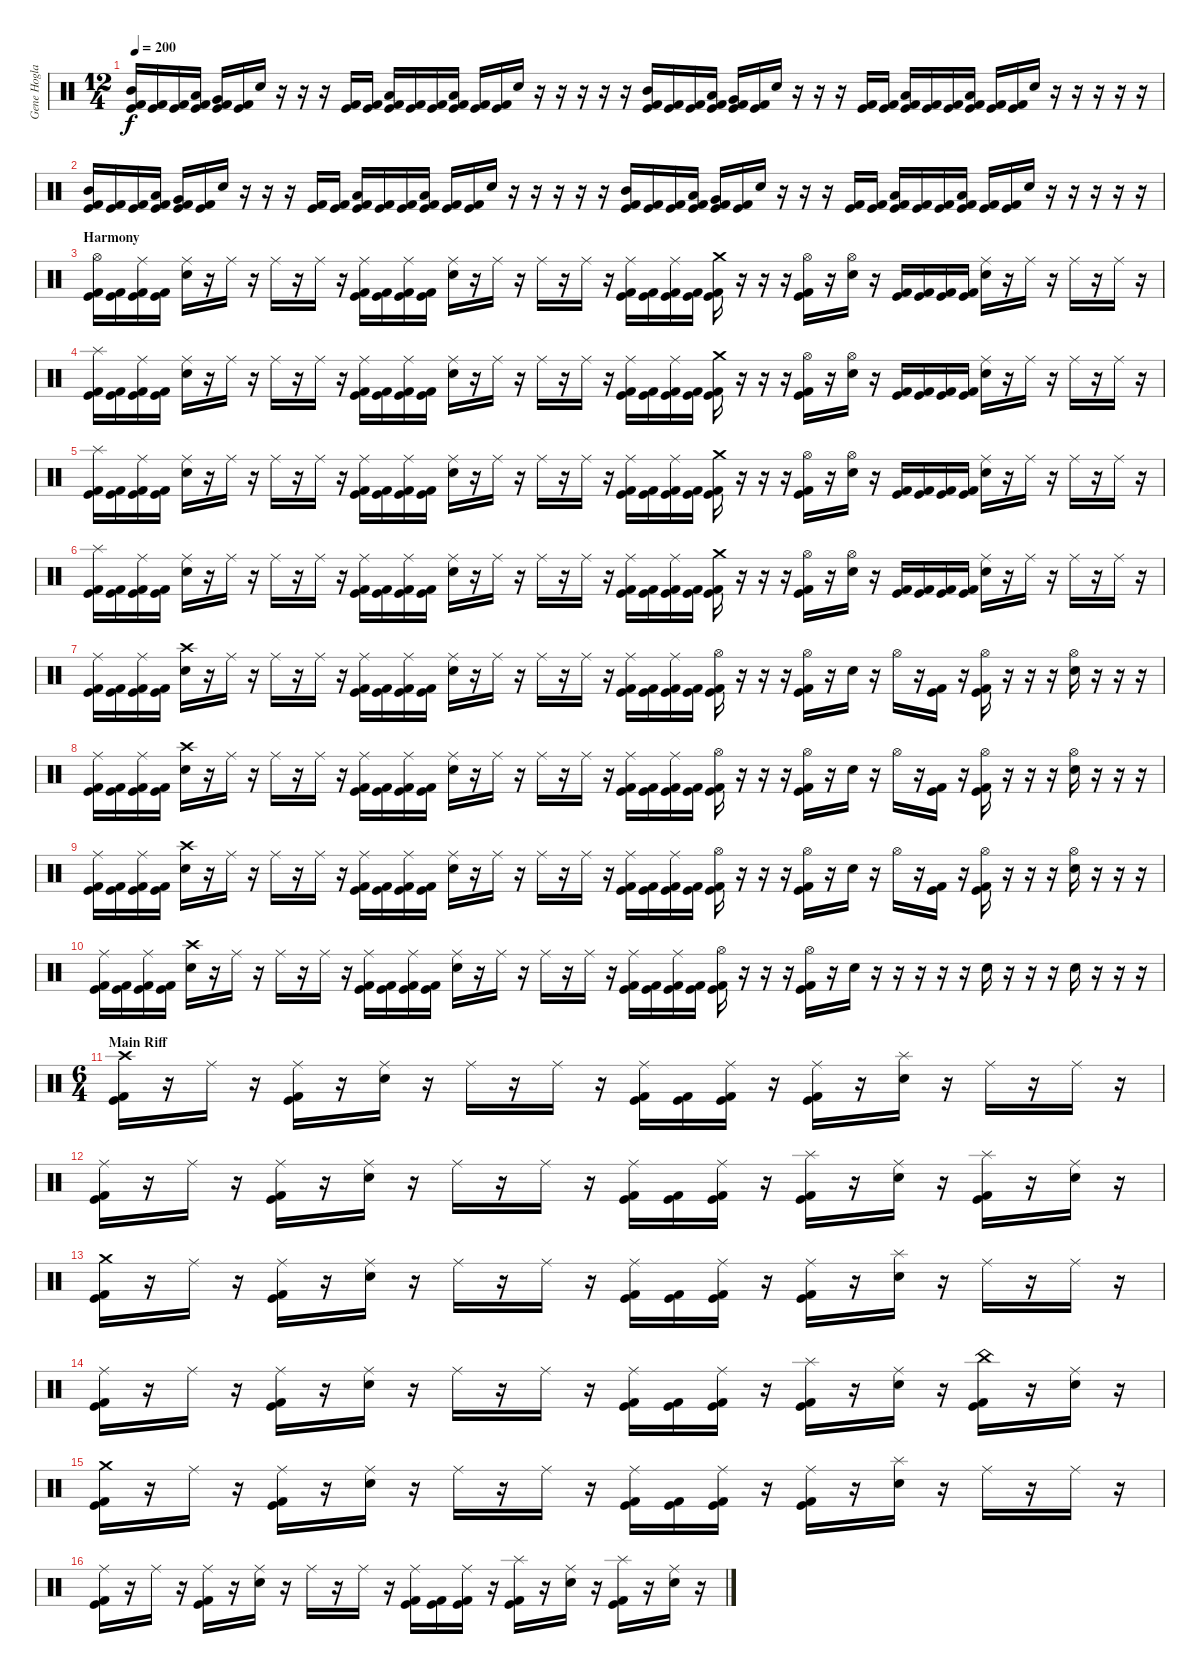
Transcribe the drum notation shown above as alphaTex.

\track ("Gene Hoglan" "Gene Hogla") {instrument percussion}
\staff {score}
\articulation defaults
\ts (12 4)
\tempo 200
\clef neutral
\ks c
("Mid Tom (hit)" "Kick (hit) 2" "Kick (hit)").16{dy f} ("Kick (hit) 2" "Kick (hit)").16 ("Kick (hit) 2" "Kick (hit)").16 ("Low Tom (hit)" "Kick (hit) 2" "Kick (hit)").16 ("Very Low Tom (hit)" "Kick (hit) 2" "Kick (hit)").16 ("Kick (hit) 2" "Kick (hit)").16 "Electric Snare (hit)".16 r.16 r.16 r.16 ("Kick (hit) 2" "Kick (hit)").16 ("Kick (hit) 2" "Kick (hit)").16 ("Low Tom (hit)" "Kick (hit) 2" "Kick (hit)").16 ("Kick (hit) 2" "Kick (hit)").16 ("Kick (hit) 2" "Kick (hit)").16 ("Low Tom (hit)" "Kick (hit) 2" "Kick (hit)").16 ("Kick (hit) 2" "Kick (hit)").16 ("Kick (hit) 2" "Kick (hit)").16 "Electric Snare (hit)".16 r.16 r.16 r.16 r.16 r.16 ("Mid Tom (hit)" "Kick (hit) 2" "Kick (hit)").16 ("Kick (hit) 2" "Kick (hit)").16 ("Kick (hit) 2" "Kick (hit)").16 ("Low Tom (hit)" "Kick (hit) 2" "Kick (hit)").16 ("Very Low Tom (hit)" "Kick (hit) 2" "Kick (hit)").16 ("Kick (hit) 2" "Kick (hit)").16 "Electric Snare (hit)".16 r.16 r.16 r.16 ("Kick (hit) 2" "Kick (hit)").16 ("Kick (hit) 2" "Kick (hit)").16 ("Low Tom (hit)" "Kick (hit) 2" "Kick (hit)").16 ("Kick (hit) 2" "Kick (hit)").16 ("Kick (hit) 2" "Kick (hit)").16 ("Low Tom (hit)" "Kick (hit) 2" "Kick (hit)").16 ("Kick (hit) 2" "Kick (hit)").16 ("Kick (hit) 2" "Kick (hit)").16 "Electric Snare (hit)".16 r.16 r.16 r.16 r.16 r.16 |
("Mid Tom (hit)" "Kick (hit) 2" "Kick (hit)").16 ("Kick (hit) 2" "Kick (hit)").16 ("Kick (hit) 2" "Kick (hit)").16 ("Low Tom (hit)" "Kick (hit) 2" "Kick (hit)").16 ("Very Low Tom (hit)" "Kick (hit) 2" "Kick (hit)").16 ("Kick (hit) 2" "Kick (hit)").16 "Electric Snare (hit)".16 r.16 r.16 r.16 ("Kick (hit) 2" "Kick (hit)").16 ("Kick (hit) 2" "Kick (hit)").16 ("Low Tom (hit)" "Kick (hit) 2" "Kick (hit)").16 ("Kick (hit) 2" "Kick (hit)").16 ("Kick (hit) 2" "Kick (hit)").16 ("Low Tom (hit)" "Kick (hit) 2" "Kick (hit)").16 ("Kick (hit) 2" "Kick (hit)").16 ("Kick (hit) 2" "Kick (hit)").16 "Electric Snare (hit)".16 r.16 r.16 r.16 r.16 r.16 ("Mid Tom (hit)" "Kick (hit) 2" "Kick (hit)").16 ("Kick (hit) 2" "Kick (hit)").16 ("Kick (hit) 2" "Kick (hit)").16 ("Low Tom (hit)" "Kick (hit) 2" "Kick (hit)").16 ("Very Low Tom (hit)" "Kick (hit) 2" "Kick (hit)").16 ("Kick (hit) 2" "Kick (hit)").16 "Electric Snare (hit)".16 r.16 r.16 r.16 ("Kick (hit) 2" "Kick (hit)").16 ("Kick (hit) 2" "Kick (hit)").16 ("Low Tom (hit)" "Kick (hit) 2" "Kick (hit)").16 ("Kick (hit) 2" "Kick (hit)").16 ("Kick (hit) 2" "Kick (hit)").16 ("Low Tom (hit)" "Kick (hit) 2" "Kick (hit)").16 ("Kick (hit) 2" "Kick (hit)").16 ("Kick (hit) 2" "Kick (hit)").16 "Electric Snare (hit)".16 r.16 r.16 r.16 r.16 r.16 |
\section ("" "Harmony")
("Hi-Hat (open)" "Kick (hit) 2" "Kick (hit)").16 ("Kick (hit) 2" "Kick (hit)").16 ("Ride (middle)" "Kick (hit) 2" "Kick (hit)").16 ("Kick (hit) 2" "Kick (hit)").16 ("Ride (middle)" "Electric Snare (hit)").16 r.16 "Ride (middle)".16 r.16 "Ride (middle)".16 r.16 "Ride (middle)".16 r.16 ("Ride (middle)" "Kick (hit) 2" "Kick (hit)").16 ("Kick (hit) 2" "Kick (hit)").16 ("Ride (middle)" "Kick (hit) 2" "Kick (hit)").16 ("Kick (hit) 2" "Kick (hit)").16 ("Ride (middle)" "Electric Snare (hit)").16 r.16 "Ride (middle)".16 r.16 "Ride (middle)".16 r.16 "Ride (middle)".16 r.16 ("Ride (middle)" "Kick (hit) 2" "Kick (hit)").16 ("Kick (hit) 2" "Kick (hit)").16 ("Ride (middle)" "Kick (hit) 2" "Kick (hit)").16 ("Kick (hit) 2" "Kick (hit)").16 ("Crash medium (hit)" "Kick (hit) 2" "Kick (hit)").16 r.16 r.16 r.16 ("Hi-Hat (open)" "Kick (hit) 2" "Kick (hit)").16 r.16 ("Hi-Hat (open)" "Electric Snare (hit)").16 r.16 ("Kick (hit) 2" "Kick (hit)").16 ("Kick (hit) 2" "Kick (hit)").16 ("Kick (hit) 2" "Kick (hit)").16 ("Kick (hit) 2" "Kick (hit)").16 ("Ride (middle)" "Electric Snare (hit)").16 r.16 "Ride (middle)".16 r.16 "Ride (middle)".16 r.16 "Ride (middle)".16 r.16 |
("Splash (hit)" "Kick (hit) 2" "Kick (hit)").16 ("Kick (hit) 2" "Kick (hit)").16 ("Ride (middle)" "Kick (hit) 2" "Kick (hit)").16 ("Kick (hit) 2" "Kick (hit)").16 ("Ride (middle)" "Electric Snare (hit)").16 r.16 "Ride (middle)".16 r.16 "Ride (middle)".16 r.16 "Ride (middle)".16 r.16 ("Ride (middle)" "Kick (hit) 2" "Kick (hit)").16 ("Kick (hit) 2" "Kick (hit)").16 ("Ride (middle)" "Kick (hit) 2" "Kick (hit)").16 ("Kick (hit) 2" "Kick (hit)").16 ("Ride (middle)" "Electric Snare (hit)").16 r.16 "Ride (middle)".16 r.16 "Ride (middle)".16 r.16 "Ride (middle)".16 r.16 ("Ride (middle)" "Kick (hit) 2" "Kick (hit)").16 ("Kick (hit) 2" "Kick (hit)").16 ("Ride (middle)" "Kick (hit) 2" "Kick (hit)").16 ("Kick (hit) 2" "Kick (hit)").16 ("Crash medium (hit)" "Kick (hit) 2" "Kick (hit)").16 r.16 r.16 r.16 ("Hi-Hat (open)" "Kick (hit) 2" "Kick (hit)").16 r.16 ("Hi-Hat (open)" "Electric Snare (hit)").16 r.16 ("Kick (hit) 2" "Kick (hit)").16 ("Kick (hit) 2" "Kick (hit)").16 ("Kick (hit) 2" "Kick (hit)").16 ("Kick (hit) 2" "Kick (hit)").16 ("Ride (middle)" "Electric Snare (hit)").16 r.16 "Ride (middle)".16 r.16 "Ride (middle)".16 r.16 "Ride (middle)".16 r.16 |
("Splash (hit)" "Kick (hit) 2" "Kick (hit)").16 ("Kick (hit) 2" "Kick (hit)").16 ("Ride (middle)" "Kick (hit) 2" "Kick (hit)").16 ("Kick (hit) 2" "Kick (hit)").16 ("Ride (middle)" "Electric Snare (hit)").16 r.16 "Ride (middle)".16 r.16 "Ride (middle)".16 r.16 "Ride (middle)".16 r.16 ("Ride (middle)" "Kick (hit) 2" "Kick (hit)").16 ("Kick (hit) 2" "Kick (hit)").16 ("Ride (middle)" "Kick (hit) 2" "Kick (hit)").16 ("Kick (hit) 2" "Kick (hit)").16 ("Ride (middle)" "Electric Snare (hit)").16 r.16 "Ride (middle)".16 r.16 "Ride (middle)".16 r.16 "Ride (middle)".16 r.16 ("Ride (middle)" "Kick (hit) 2" "Kick (hit)").16 ("Kick (hit) 2" "Kick (hit)").16 ("Ride (middle)" "Kick (hit) 2" "Kick (hit)").16 ("Kick (hit) 2" "Kick (hit)").16 ("Crash medium (hit)" "Kick (hit) 2" "Kick (hit)").16 r.16 r.16 r.16 ("Hi-Hat (open)" "Kick (hit) 2" "Kick (hit)").16 r.16 ("Hi-Hat (open)" "Electric Snare (hit)").16 r.16 ("Kick (hit) 2" "Kick (hit)").16 ("Kick (hit) 2" "Kick (hit)").16 ("Kick (hit) 2" "Kick (hit)").16 ("Kick (hit) 2" "Kick (hit)").16 ("Ride (middle)" "Electric Snare (hit)").16 r.16 "Ride (middle)".16 r.16 "Ride (middle)".16 r.16 "Ride (middle)".16 r.16 |
("Splash (hit)" "Kick (hit) 2" "Kick (hit)").16 ("Kick (hit) 2" "Kick (hit)").16 ("Ride (middle)" "Kick (hit) 2" "Kick (hit)").16 ("Kick (hit) 2" "Kick (hit)").16 ("Ride (middle)" "Electric Snare (hit)").16 r.16 "Ride (middle)".16 r.16 "Ride (middle)".16 r.16 "Ride (middle)".16 r.16 ("Ride (middle)" "Kick (hit) 2" "Kick (hit)").16 ("Kick (hit) 2" "Kick (hit)").16 ("Ride (middle)" "Kick (hit) 2" "Kick (hit)").16 ("Kick (hit) 2" "Kick (hit)").16 ("Ride (middle)" "Electric Snare (hit)").16 r.16 "Ride (middle)".16 r.16 "Ride (middle)".16 r.16 "Ride (middle)".16 r.16 ("Ride (middle)" "Kick (hit) 2" "Kick (hit)").16 ("Kick (hit) 2" "Kick (hit)").16 ("Ride (middle)" "Kick (hit) 2" "Kick (hit)").16 ("Kick (hit) 2" "Kick (hit)").16 ("Crash medium (hit)" "Kick (hit) 2" "Kick (hit)").16 r.16 r.16 r.16 ("Hi-Hat (open)" "Kick (hit) 2" "Kick (hit)").16 r.16 ("Hi-Hat (open)" "Electric Snare (hit)").16 r.16 ("Kick (hit) 2" "Kick (hit)").16 ("Kick (hit) 2" "Kick (hit)").16 ("Kick (hit) 2" "Kick (hit)").16 ("Kick (hit) 2" "Kick (hit)").16 ("Ride (middle)" "Electric Snare (hit)").16 r.16 "Ride (middle)".16 r.16 "Ride (middle)".16 r.16 "Ride (middle)".16 r.16 |
("Ride (middle)" "Kick (hit) 2" "Kick (hit)").16 ("Kick (hit) 2" "Kick (hit)").16 ("Ride (middle)" "Kick (hit) 2" "Kick (hit)").16 ("Kick (hit) 2" "Kick (hit)").16 ("Crash high (hit)" "Electric Snare (hit)").16 r.16 "Ride (middle)".16 r.16 "Ride (middle)".16 r.16 "Ride (middle)".16 r.16 ("Ride (middle)" "Kick (hit) 2" "Kick (hit)").16 ("Kick (hit) 2" "Kick (hit)").16 ("Ride (middle)" "Kick (hit) 2" "Kick (hit)").16 ("Kick (hit) 2" "Kick (hit)").16 ("Ride (middle)" "Electric Snare (hit)").16 r.16 "Ride (middle)".16 r.16 "Ride (middle)".16 r.16 "Ride (middle)".16 r.16 ("Ride (middle)" "Kick (hit) 2" "Kick (hit)").16 ("Kick (hit) 2" "Kick (hit)").16 ("Ride (middle)" "Kick (hit) 2" "Kick (hit)").16 ("Kick (hit) 2" "Kick (hit)").16 ("Hi-Hat (open)" "Kick (hit)" "Kick (hit) 2").16 r.16 r.16 r.16 ("Hi-Hat (open)" "Kick (hit) 2" "Kick (hit)").16 r.16 "Electric Snare (hit)".16 r.16 "Hi-Hat (open)".16 r.16 ("Kick (hit) 2" "Kick (hit)").16 r.16 ("Hi-Hat (open)" "Kick (hit) 2" "Kick (hit)").16 r.16 r.16 r.16 ("Hi-Hat (open)" "Electric Snare (hit)").16 r.16 r.16 r.16 |
("Ride (middle)" "Kick (hit) 2" "Kick (hit)").16 ("Kick (hit) 2" "Kick (hit)").16 ("Ride (middle)" "Kick (hit) 2" "Kick (hit)").16 ("Kick (hit) 2" "Kick (hit)").16 ("Crash high (hit)" "Electric Snare (hit)").16 r.16 "Ride (middle)".16 r.16 "Ride (middle)".16 r.16 "Ride (middle)".16 r.16 ("Ride (middle)" "Kick (hit) 2" "Kick (hit)").16 ("Kick (hit) 2" "Kick (hit)").16 ("Ride (middle)" "Kick (hit) 2" "Kick (hit)").16 ("Kick (hit) 2" "Kick (hit)").16 ("Ride (middle)" "Electric Snare (hit)").16 r.16 "Ride (middle)".16 r.16 "Ride (middle)".16 r.16 "Ride (middle)".16 r.16 ("Ride (middle)" "Kick (hit) 2" "Kick (hit)").16 ("Kick (hit) 2" "Kick (hit)").16 ("Ride (middle)" "Kick (hit) 2" "Kick (hit)").16 ("Kick (hit) 2" "Kick (hit)").16 ("Hi-Hat (open)" "Kick (hit)" "Kick (hit) 2").16 r.16 r.16 r.16 ("Hi-Hat (open)" "Kick (hit) 2" "Kick (hit)").16 r.16 "Electric Snare (hit)".16 r.16 "Hi-Hat (open)".16 r.16 ("Kick (hit) 2" "Kick (hit)").16 r.16 ("Hi-Hat (open)" "Kick (hit) 2" "Kick (hit)").16 r.16 r.16 r.16 ("Hi-Hat (open)" "Electric Snare (hit)").16 r.16 r.16 r.16 |
("Ride (middle)" "Kick (hit) 2" "Kick (hit)").16 ("Kick (hit) 2" "Kick (hit)").16 ("Ride (middle)" "Kick (hit) 2" "Kick (hit)").16 ("Kick (hit) 2" "Kick (hit)").16 ("Crash high (hit)" "Electric Snare (hit)").16 r.16 "Ride (middle)".16 r.16 "Ride (middle)".16 r.16 "Ride (middle)".16 r.16 ("Ride (middle)" "Kick (hit) 2" "Kick (hit)").16 ("Kick (hit) 2" "Kick (hit)").16 ("Ride (middle)" "Kick (hit) 2" "Kick (hit)").16 ("Kick (hit) 2" "Kick (hit)").16 ("Ride (middle)" "Electric Snare (hit)").16 r.16 "Ride (middle)".16 r.16 "Ride (middle)".16 r.16 "Ride (middle)".16 r.16 ("Ride (middle)" "Kick (hit) 2" "Kick (hit)").16 ("Kick (hit) 2" "Kick (hit)").16 ("Ride (middle)" "Kick (hit) 2" "Kick (hit)").16 ("Kick (hit) 2" "Kick (hit)").16 ("Hi-Hat (open)" "Kick (hit)" "Kick (hit) 2").16 r.16 r.16 r.16 ("Hi-Hat (open)" "Kick (hit) 2" "Kick (hit)").16 r.16 "Electric Snare (hit)".16 r.16 "Hi-Hat (open)".16 r.16 ("Kick (hit) 2" "Kick (hit)").16 r.16 ("Hi-Hat (open)" "Kick (hit) 2" "Kick (hit)").16 r.16 r.16 r.16 ("Hi-Hat (open)" "Electric Snare (hit)").16 r.16 r.16 r.16 |
("Ride (middle)" "Kick (hit) 2" "Kick (hit)").16 ("Kick (hit) 2" "Kick (hit)").16 ("Ride (middle)" "Kick (hit) 2" "Kick (hit)").16 ("Kick (hit) 2" "Kick (hit)").16 ("Crash high (hit)" "Electric Snare (hit)").16 r.16 "Ride (middle)".16 r.16 "Ride (middle)".16 r.16 "Ride (middle)".16 r.16 ("Ride (middle)" "Kick (hit) 2" "Kick (hit)").16 ("Kick (hit) 2" "Kick (hit)").16 ("Ride (middle)" "Kick (hit) 2" "Kick (hit)").16 ("Kick (hit) 2" "Kick (hit)").16 ("Ride (middle)" "Electric Snare (hit)").16 r.16 "Ride (middle)".16 r.16 "Ride (middle)".16 r.16 "Ride (middle)".16 r.16 ("Ride (middle)" "Kick (hit) 2" "Kick (hit)").16 ("Kick (hit) 2" "Kick (hit)").16 ("Ride (middle)" "Kick (hit) 2" "Kick (hit)").16 ("Kick (hit) 2" "Kick (hit)").16 ("Hi-Hat (open)" "Kick (hit)" "Kick (hit) 2").16 r.16 r.16 r.16 ("Hi-Hat (open)" "Kick (hit) 2" "Kick (hit)").16 r.16 "Electric Snare (hit)".16 r.16 r.16 r.16 r.16 r.16 "Electric Snare (hit)".16 r.16 r.16 r.16 "Electric Snare (hit)".16 r.16 r.16 r.16 |
\ts (6 4)
\section ("" "Main Riff")
("Crash high (hit)" "Kick (hit) 2" "Kick (hit)").16 r.16 "Ride (middle)".16 r.16 ("Ride (middle)" "Kick (hit) 2" "Kick (hit)").16 r.16 ("Ride (middle)" "Electric Snare (hit)").16 r.16 "Ride (middle)".16 r.16 "Ride (middle)".16 r.16 ("Ride (middle)" "Kick (hit) 2" "Kick (hit)").16 ("Kick (hit) 2" "Kick (hit)").16 ("Ride (middle)" "Kick (hit) 2" "Kick (hit)").16 r.16 ("Ride (middle)" "Kick (hit) 2" "Kick (hit)").16 r.16 ("Splash (hit)" "Electric Snare (hit)").16 r.16 "Ride (middle)".16 r.16 "Ride (middle)".16 r.16 |
("Ride (middle)" "Kick (hit) 2" "Kick (hit)").16 r.16 "Ride (middle)".16 r.16 ("Ride (middle)" "Kick (hit) 2" "Kick (hit)").16 r.16 ("Ride (middle)" "Electric Snare (hit)").16 r.16 "Ride (middle)".16 r.16 "Ride (middle)".16 r.16 ("Ride (middle)" "Kick (hit) 2" "Kick (hit)").16 ("Kick (hit) 2" "Kick (hit)").16 ("Ride (middle)" "Kick (hit) 2" "Kick (hit)").16 r.16 ("Splash (hit)" "Kick (hit) 2" "Kick (hit)").16 r.16 ("Ride (middle)" "Electric Snare (hit)").16 r.16 ("Splash (hit)" "Kick (hit) 2" "Kick (hit)").16 r.16 ("Ride (middle)" "Electric Snare (hit)").16 r.16 |
("Crash medium (hit)" "Kick (hit) 2" "Kick (hit)").16 r.16 "Ride (middle)".16 r.16 ("Ride (middle)" "Kick (hit) 2" "Kick (hit)").16 r.16 ("Ride (middle)" "Electric Snare (hit)").16 r.16 "Ride (middle)".16 r.16 "Ride (middle)".16 r.16 ("Ride (middle)" "Kick (hit) 2" "Kick (hit)").16 ("Kick (hit) 2" "Kick (hit)").16 ("Ride (middle)" "Kick (hit) 2" "Kick (hit)").16 r.16 ("Ride (middle)" "Kick (hit) 2" "Kick (hit)").16 r.16 ("Splash (hit)" "Electric Snare (hit)").16 r.16 "Ride (middle)".16 r.16 "Ride (middle)".16 r.16 |
("Ride (middle)" "Kick (hit) 2" "Kick (hit)").16 r.16 "Ride (middle)".16 r.16 ("Ride (middle)" "Kick (hit) 2" "Kick (hit)").16 r.16 ("Ride (middle)" "Electric Snare (hit)").16 r.16 "Ride (middle)".16 r.16 "Ride (middle)".16 r.16 ("Ride (middle)" "Kick (hit) 2" "Kick (hit)").16 ("Kick (hit) 2" "Kick (hit)").16 ("Ride (middle)" "Kick (hit) 2" "Kick (hit)").16 r.16 ("Splash (hit)" "Kick (hit) 2" "Kick (hit)").16 r.16 ("Ride (middle)" "Electric Snare (hit)").16 r.16 ("China (hit)" "Kick (hit) 2" "Kick (hit)").16 r.16 ("Ride (middle)" "Electric Snare (hit)").16 r.16 |
("Crash medium (hit)" "Kick (hit) 2" "Kick (hit)").16 r.16 "Ride (middle)".16 r.16 ("Ride (middle)" "Kick (hit) 2" "Kick (hit)").16 r.16 ("Ride (middle)" "Electric Snare (hit)").16 r.16 "Ride (middle)".16 r.16 "Ride (middle)".16 r.16 ("Ride (middle)" "Kick (hit) 2" "Kick (hit)").16 ("Kick (hit) 2" "Kick (hit)").16 ("Ride (middle)" "Kick (hit) 2" "Kick (hit)").16 r.16 ("Ride (middle)" "Kick (hit) 2" "Kick (hit)").16 r.16 ("Splash (hit)" "Electric Snare (hit)").16 r.16 "Ride (middle)".16 r.16 "Ride (middle)".16 r.16 |
("Ride (middle)" "Kick (hit) 2" "Kick (hit)").16 r.16 "Ride (middle)".16 r.16 ("Ride (middle)" "Kick (hit) 2" "Kick (hit)").16 r.16 ("Ride (middle)" "Electric Snare (hit)").16 r.16 "Ride (middle)".16 r.16 "Ride (middle)".16 r.16 ("Ride (middle)" "Kick (hit) 2" "Kick (hit)").16 ("Kick (hit) 2" "Kick (hit)").16 ("Ride (middle)" "Kick (hit) 2" "Kick (hit)").16 r.16 ("Splash (hit)" "Kick (hit) 2" "Kick (hit)").16 r.16 ("Ride (middle)" "Electric Snare (hit)").16 r.16 ("Splash (hit)" "Kick (hit) 2" "Kick (hit)").16 r.16 ("Ride (middle)" "Electric Snare (hit)").16 r.16
